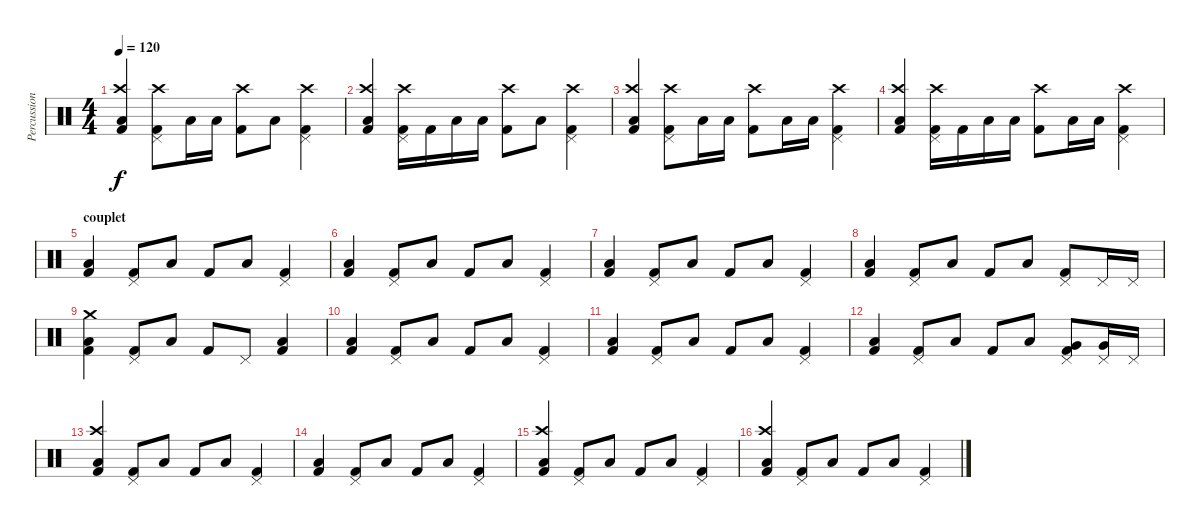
\track ("Percussions" "Percussion") {instrument percussion}
\staff {score}
\articulation defaults
\ts (4 4)
\tempo 120
\clef neutral
\ks c
("Low Floor Tom (hit)" "Crash high (hit)" "Kick (hit) 2").4{dy f} ("Pedal Hi-Hat (hit)" "Crash high (hit)" "Kick (hit) 2").8 "Low Floor Tom (hit)".16 "Low Floor Tom (hit)".16 ("Crash high (hit)" "Kick (hit) 2").8 "Low Floor Tom (hit)".8 ("Pedal Hi-Hat (hit)" "Crash high (hit)" "Kick (hit) 2").4 |
("Low Floor Tom (hit)" "Crash high (hit)" "Kick (hit) 2").4 ("Pedal Hi-Hat (hit)" "Crash high (hit)" "Kick (hit) 2").16 "Kick (hit) 2".16 "Low Floor Tom (hit)".16 "Low Floor Tom (hit)".16 ("Crash high (hit)" "Kick (hit) 2").8 "Low Floor Tom (hit)".8 ("Pedal Hi-Hat (hit)" "Crash high (hit)" "Kick (hit) 2").4 |
("Low Floor Tom (hit)" "Crash high (hit)" "Kick (hit) 2").4 ("Pedal Hi-Hat (hit)" "Crash high (hit)" "Kick (hit) 2").8 "Low Floor Tom (hit)".16 "Low Floor Tom (hit)".16 ("Crash high (hit)" "Kick (hit) 2").8 "Low Floor Tom (hit)".16 "Low Floor Tom (hit)".16 ("Pedal Hi-Hat (hit)" "Crash high (hit)" "Kick (hit) 2").4 |
("Low Floor Tom (hit)" "Crash high (hit)" "Kick (hit) 2").4 ("Pedal Hi-Hat (hit)" "Crash high (hit)" "Kick (hit) 2").16 "Kick (hit) 2".16 "Low Floor Tom (hit)".16 "Low Floor Tom (hit)".16 ("Crash high (hit)" "Kick (hit) 2").8 "Low Floor Tom (hit)".16 "Low Floor Tom (hit)".16 ("Pedal Hi-Hat (hit)" "Crash high (hit)" "Kick (hit) 2").4 |
\section ("" "couplet")
("Low Floor Tom (hit)" "Kick (hit) 2").4 ("Pedal Hi-Hat (hit)" "Kick (hit) 2").8 "Low Floor Tom (hit)".8 "Kick (hit) 2".8 "Low Floor Tom (hit)".8 ("Pedal Hi-Hat (hit)" "Kick (hit) 2").4 |
("Low Floor Tom (hit)" "Kick (hit) 2").4 ("Pedal Hi-Hat (hit)" "Kick (hit) 2").8 "Low Floor Tom (hit)".8 "Kick (hit) 2".8 "Low Floor Tom (hit)".8 ("Pedal Hi-Hat (hit)" "Kick (hit) 2").4 |
("Low Floor Tom (hit)" "Kick (hit) 2").4 ("Pedal Hi-Hat (hit)" "Kick (hit) 2").8 "Low Floor Tom (hit)".8 "Kick (hit) 2".8 "Low Floor Tom (hit)".8 ("Pedal Hi-Hat (hit)" "Kick (hit) 2").4 |
("Low Floor Tom (hit)" "Kick (hit) 2").4 ("Pedal Hi-Hat (hit)" "Kick (hit) 2").8 "Low Floor Tom (hit)".8 "Kick (hit) 2".8 "Low Floor Tom (hit)".8 ("Pedal Hi-Hat (hit)" "Kick (hit) 2").8 "Pedal Hi-Hat (hit)".16 "Pedal Hi-Hat (hit)".16 |
("Low Floor Tom (hit)" "Crash medium (hit)" "Kick (hit) 2").4 ("Pedal Hi-Hat (hit)" "Kick (hit) 2").8 "Low Floor Tom (hit)".8 "Kick (hit) 2".8 "Pedal Hi-Hat (hit)".8 ("Low Floor Tom (hit)" "Kick (hit) 2").4 |
("Low Floor Tom (hit)" "Kick (hit) 2").4 ("Pedal Hi-Hat (hit)" "Kick (hit) 2").8 "Low Floor Tom (hit)".8 "Kick (hit) 2".8 "Low Floor Tom (hit)".8 ("Pedal Hi-Hat (hit)" "Kick (hit) 2").4 |
("Low Floor Tom (hit)" "Kick (hit) 2").4 ("Pedal Hi-Hat (hit)" "Kick (hit) 2").8 "Low Floor Tom (hit)".8 "Kick (hit) 2".8 "Low Floor Tom (hit)".8 ("Pedal Hi-Hat (hit)" "Kick (hit) 2").4 |
("Low Floor Tom (hit)" "Kick (hit) 2").4 ("Pedal Hi-Hat (hit)" "Kick (hit) 2").8 "Low Floor Tom (hit)".8 "Kick (hit) 2".8 "Low Floor Tom (hit)".8 ("Pedal Hi-Hat (hit)" "Very Low Tom (hit)" "Kick (hit) 2").8 ("Pedal Hi-Hat (hit)" "Very Low Tom (hit)").16 "Pedal Hi-Hat (hit)".16 |
("Low Floor Tom (hit)" "Crash high (hit)" "Kick (hit) 2").4 ("Pedal Hi-Hat (hit)" "Kick (hit) 2").8 "Low Floor Tom (hit)".8 "Kick (hit) 2".8 "Low Floor Tom (hit)".8 ("Pedal Hi-Hat (hit)" "Kick (hit) 2").4 |
("Low Floor Tom (hit)" "Kick (hit) 2").4 ("Pedal Hi-Hat (hit)" "Kick (hit) 2").8 "Low Floor Tom (hit)".8 "Kick (hit) 2".8 "Low Floor Tom (hit)".8 ("Pedal Hi-Hat (hit)" "Kick (hit) 2").4 |
("Low Floor Tom (hit)" "Crash high (hit)" "Kick (hit) 2").4 ("Pedal Hi-Hat (hit)" "Kick (hit) 2").8 "Low Floor Tom (hit)".8 "Kick (hit) 2".8 "Low Floor Tom (hit)".8 ("Pedal Hi-Hat (hit)" "Kick (hit) 2").4 |
("Low Floor Tom (hit)" "Crash high (hit)" "Kick (hit) 2").4 ("Pedal Hi-Hat (hit)" "Kick (hit) 2").8 "Low Floor Tom (hit)".8 "Kick (hit) 2".8 "Low Floor Tom (hit)".8 ("Pedal Hi-Hat (hit)" "Kick (hit) 2").4
